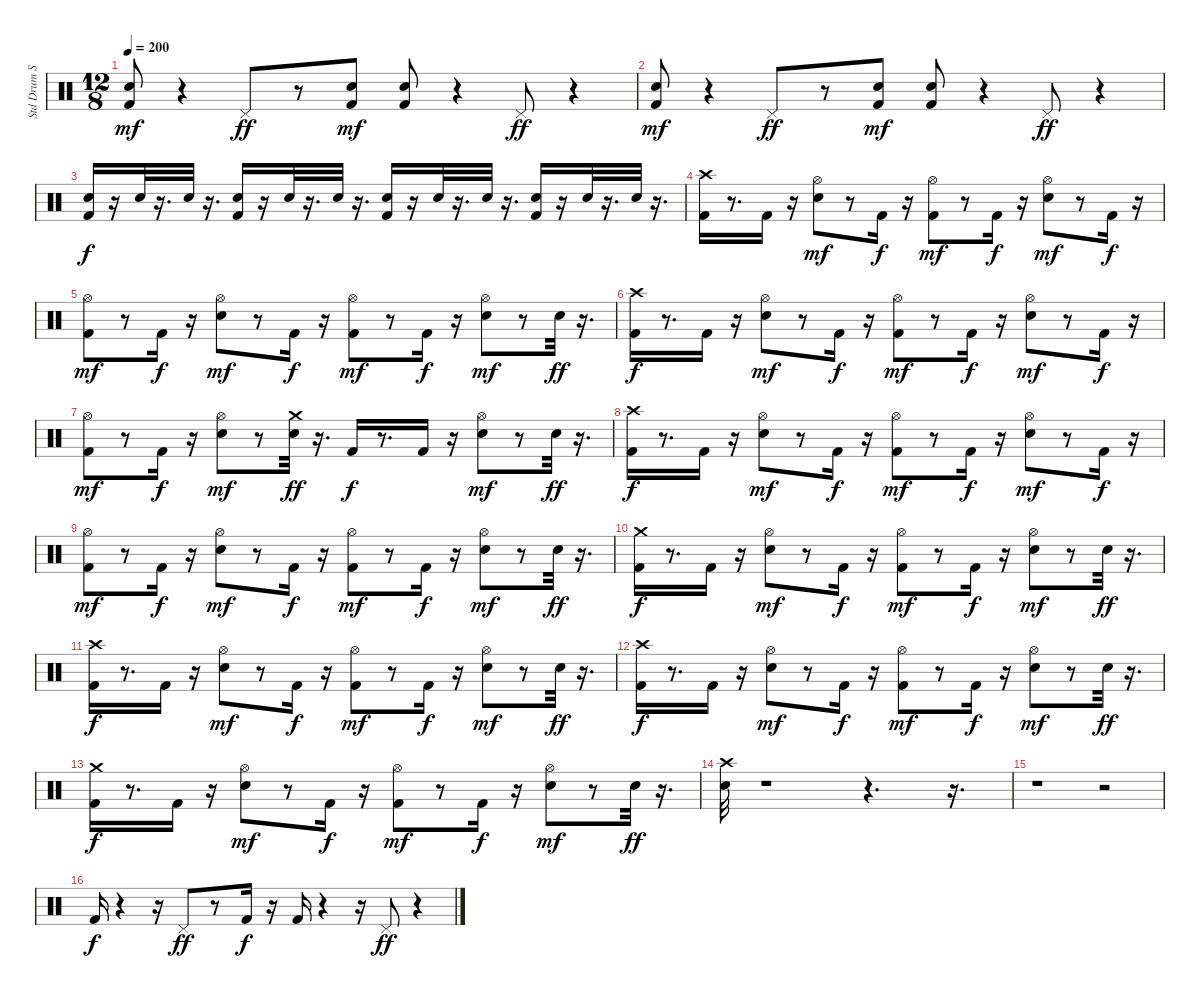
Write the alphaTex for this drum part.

\track ("Std Drum Set" "Std Drum S") {instrument percussion}
\staff {score}
\articulation defaults
\ts (12 8)
\tempo 200
\clef neutral
\ks c
("Kick (hit) 2" "Hand Clap (hit)").8{dy mf} r.4 "Pedal Hi-Hat (hit)".8{dy ff} r.8 ("Kick (hit) 2" "Hand Clap (hit)").8{dy mf} ("Kick (hit) 2" "Hand Clap (hit)").8 r.4 "Pedal Hi-Hat (hit)".8{dy ff} r.4 |
("Kick (hit) 2" "Hand Clap (hit)").8{dy mf} r.4 "Pedal Hi-Hat (hit)".8{dy ff} r.8 ("Kick (hit) 2" "Hand Clap (hit)").8{dy mf} ("Kick (hit) 2" "Hand Clap (hit)").8 r.4 "Pedal Hi-Hat (hit)".8{dy ff} r.4 |
("Kick (hit) 2" "Snare (hit) 2").16{dy f} r.16 "Snare (hit) 2".32 r.16{d} "Snare (hit) 2".32 r.16{d} ("Kick (hit) 2" "Snare (hit) 2").16 r.16 "Snare (hit) 2".32 r.16{d} "Snare (hit) 2".32 r.16{d} ("Kick (hit) 2" "Snare (hit) 2").16 r.16 "Snare (hit) 2".32 r.16{d} "Snare (hit) 2".32 r.16{d} ("Kick (hit) 2" "Snare (hit) 2").16 r.16 "Snare (hit) 2".32 r.16{d} "Snare (hit) 2".32 r.16{d} |
("Kick (hit) 2" "Crash high (hit)").16 r.8{d} "Kick (hit) 2".16 r.16 ("Snare (hit) 2" "Hi-Hat (open)").8{dy mf} r.8 "Kick (hit) 2".16{dy f} r.16 ("Kick (hit) 2" "Hi-Hat (open)").8{dy mf} r.8 "Kick (hit) 2".16{dy f} r.16 ("Snare (hit) 2" "Hi-Hat (open)").8{dy mf} r.8 "Kick (hit) 2".16{dy f} r.16 |
("Kick (hit) 2" "Hi-Hat (open)").8{dy mf} r.8 "Kick (hit) 2".16{dy f} r.16 ("Snare (hit) 2" "Hi-Hat (open)").8{dy mf} r.8 "Kick (hit) 2".16{dy f} r.16 ("Kick (hit) 2" "Hi-Hat (open)").8{dy mf} r.8 "Kick (hit) 2".16{dy f} r.16 ("Snare (hit) 2" "Hi-Hat (open)").8{dy mf} r.8 "Snare (hit) 2".32{dy ff} r.16{d} |
("Kick (hit) 2" "Crash high (hit)").16{dy f} r.8{d} "Kick (hit) 2".16 r.16 ("Snare (hit) 2" "Hi-Hat (open)").8{dy mf} r.8 "Kick (hit) 2".16{dy f} r.16 ("Kick (hit) 2" "Hi-Hat (open)").8{dy mf} r.8 "Kick (hit) 2".16{dy f} r.16 ("Snare (hit) 2" "Hi-Hat (open)").8{dy mf} r.8 "Kick (hit) 2".16{dy f} r.16 |
("Kick (hit) 2" "Hi-Hat (open)").8{dy mf} r.8 "Kick (hit) 2".16{dy f} r.16 ("Snare (hit) 2" "Hi-Hat (open)").8{dy mf} r.8 ("Snare (hit) 2" "Crash medium (hit)").32{dy ff} r.16{d} "Kick (hit) 2".16{dy f} r.8{d} "Kick (hit) 2".16 r.16 ("Snare (hit) 2" "Hi-Hat (open)").8{dy mf} r.8 "Snare (hit) 2".32{dy ff} r.16{d} |
("Kick (hit) 2" "Crash high (hit)").16{dy f} r.8{d} "Kick (hit) 2".16 r.16 ("Snare (hit) 2" "Hi-Hat (open)").8{dy mf} r.8 "Kick (hit) 2".16{dy f} r.16 ("Kick (hit) 2" "Hi-Hat (open)").8{dy mf} r.8 "Kick (hit) 2".16{dy f} r.16 ("Snare (hit) 2" "Hi-Hat (open)").8{dy mf} r.8 "Kick (hit) 2".16{dy f} r.16 |
("Kick (hit) 2" "Hi-Hat (open)").8{dy mf} r.8 "Kick (hit) 2".16{dy f} r.16 ("Snare (hit) 2" "Hi-Hat (open)").8{dy mf} r.8 "Kick (hit) 2".16{dy f} r.16 ("Kick (hit) 2" "Hi-Hat (open)").8{dy mf} r.8 "Kick (hit) 2".16{dy f} r.16 ("Snare (hit) 2" "Hi-Hat (open)").8{dy mf} r.8 "Snare (hit) 2".32{dy ff} r.16{d} |
("Kick (hit) 2" "Crash medium (hit)").16{dy f} r.8{d} "Kick (hit) 2".16 r.16 ("Snare (hit) 2" "Hi-Hat (open)").8{dy mf} r.8 "Kick (hit) 2".16{dy f} r.16 ("Kick (hit) 2" "Hi-Hat (open)").8{dy mf} r.8 "Kick (hit) 2".16{dy f} r.16 ("Snare (hit) 2" "Hi-Hat (open)").8{dy mf} r.8 "Snare (hit) 2".32{dy ff} r.16{d} |
("Kick (hit) 2" "Crash high (hit)").16{dy f} r.8{d} "Kick (hit) 2".16 r.16 ("Snare (hit) 2" "Hi-Hat (open)").8{dy mf} r.8 "Kick (hit) 2".16{dy f} r.16 ("Kick (hit) 2" "Hi-Hat (open)").8{dy mf} r.8 "Kick (hit) 2".16{dy f} r.16 ("Snare (hit) 2" "Hi-Hat (open)").8{dy mf} r.8 "Snare (hit) 2".32{dy ff} r.16{d} |
("Kick (hit) 2" "Crash high (hit)").16{dy f} r.8{d} "Kick (hit) 2".16 r.16 ("Snare (hit) 2" "Hi-Hat (open)").8{dy mf} r.8 "Kick (hit) 2".16{dy f} r.16 ("Kick (hit) 2" "Hi-Hat (open)").8{dy mf} r.8 "Kick (hit) 2".16{dy f} r.16 ("Snare (hit) 2" "Hi-Hat (open)").8{dy mf} r.8 "Snare (hit) 2".32{dy ff} r.16{d} |
("Kick (hit) 2" "Crash medium (hit)").16{dy f} r.8{d} "Kick (hit) 2".16 r.16 ("Snare (hit) 2" "Hi-Hat (open)").8{dy mf} r.8 "Kick (hit) 2".16{dy f} r.16 ("Kick (hit) 2" "Hi-Hat (open)").8{dy mf} r.8 "Kick (hit) 2".16{dy f} r.16 ("Snare (hit) 2" "Hi-Hat (open)").8{dy mf} r.8 "Snare (hit) 2".32{dy ff} r.16{d} |
("Snare (hit) 2" "Crash high (hit)").32 r.1 r.4{d} r.16{d} |
r.1 r.2 |
"Kick (hit) 2".16{dy f} r.4 r.16 "Pedal Hi-Hat (hit)".8{dy ff} r.8 "Kick (hit) 2".16{dy f} r.16 "Kick (hit) 2".16 r.4 r.16 "Pedal Hi-Hat (hit)".8{dy ff} r.4
